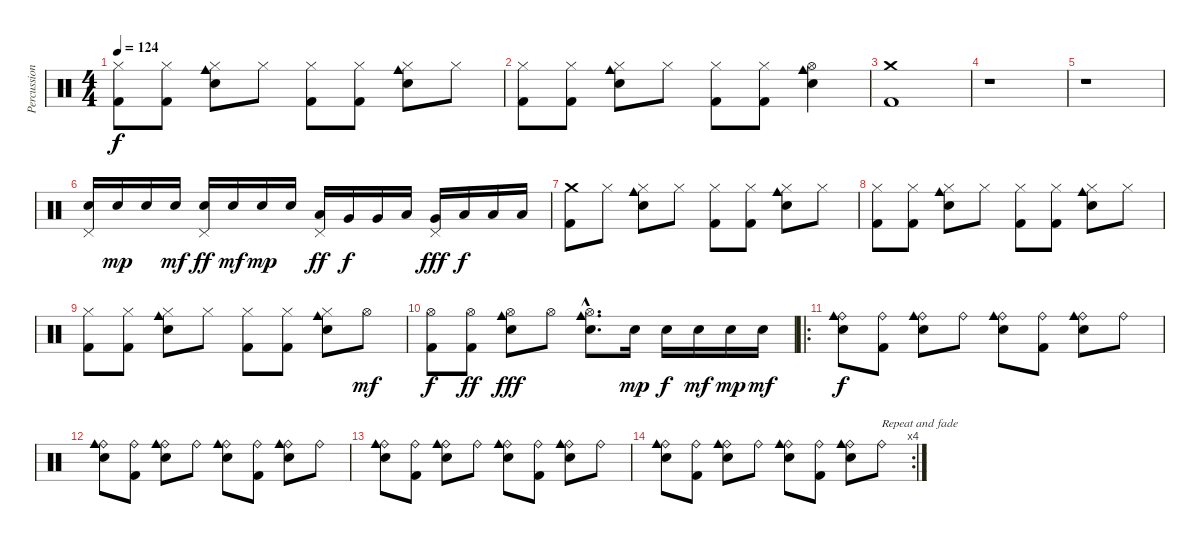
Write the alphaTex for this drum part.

\track ("Percussion" "Percussion") {instrument percussion}
\staff {score}
\articulation defaults
\ts (4 4)
\tempo 124
\clef neutral
\ks c
("Hi-Hat (closed)" "Kick (hit) 2").8{dy f} ("Hi-Hat (closed)" "Kick (hit) 2").8 ("Hi-Hat (closed)" "Cowbell medium (hit)" "Metronome (bell)").8 "Hi-Hat (closed)".8 ("Hi-Hat (closed)" "Kick (hit) 2").8 ("Hi-Hat (closed)" "Kick (hit) 2").8 ("Hi-Hat (closed)" "Cowbell medium (hit)" "Metronome (bell)").8 "Hi-Hat (closed)".8 |
("Hi-Hat (closed)" "Kick (hit) 2").8 ("Hi-Hat (closed)" "Kick (hit) 2").8 ("Hi-Hat (closed)" "Cowbell medium (hit)" "Metronome (bell)").8 "Hi-Hat (closed)".8 ("Hi-Hat (closed)" "Kick (hit) 2").8 ("Hi-Hat (closed)" "Kick (hit) 2").8 ("Hi-Hat (open)" "Cowbell medium (hit)" "Metronome (bell)").4 |
("Crash medium (hit)" "Kick (hit) 2").1 |
r.1 |
r.1 |
("Pedal Hi-Hat (hit)" "Metronome (bell)").16 "Metronome (bell)".16{dy mp} "Metronome (bell)".16 "Metronome (bell)".16{dy mf} ("Pedal Hi-Hat (hit)" "Metronome (bell)").16{dy ff} "Metronome (bell)".16{dy mf} "Metronome (bell)".16{dy mp} "Metronome (bell)".16 ("Pedal Hi-Hat (hit)" "Low Tom (hit)").16{dy ff} "Very Low Tom (hit)".16{dy f} "Very Low Tom (hit)".16 "Low Floor Tom (hit)".16 ("Pedal Hi-Hat (hit)" "Very Low Tom (hit)").16{dy fff} "Low Floor Tom (hit)".16{dy f} "Low Floor Tom (hit)".16 "Low Floor Tom (hit)".16 |
("Crash medium (hit)" "Kick (hit) 2").8 "Hi-Hat (closed)".8 ("Hi-Hat (closed)" "Cowbell medium (hit)" "Metronome (bell)").8 "Hi-Hat (closed)".8 ("Hi-Hat (closed)" "Kick (hit) 2").8 ("Hi-Hat (closed)" "Kick (hit) 2").8 ("Hi-Hat (closed)" "Cowbell medium (hit)" "Metronome (bell)").8 "Hi-Hat (closed)".8 |
("Hi-Hat (closed)" "Kick (hit) 2").8 ("Hi-Hat (closed)" "Kick (hit) 2").8 ("Hi-Hat (closed)" "Cowbell medium (hit)" "Metronome (bell)").8 "Hi-Hat (closed)".8 ("Hi-Hat (closed)" "Kick (hit) 2").8 ("Hi-Hat (closed)" "Kick (hit) 2").8 ("Hi-Hat (closed)" "Cowbell medium (hit)" "Metronome (bell)").8 "Hi-Hat (closed)".8 |
("Hi-Hat (closed)" "Kick (hit) 2").8 ("Hi-Hat (closed)" "Kick (hit) 2").8 ("Hi-Hat (closed)" "Cowbell medium (hit)" "Metronome (bell)").8 "Hi-Hat (closed)".8 ("Hi-Hat (closed)" "Kick (hit) 2").8 ("Hi-Hat (closed)" "Kick (hit) 2").8 ("Hi-Hat (closed)" "Cowbell medium (hit)" "Metronome (bell)").8 "Hi-Hat (open)".8{dy mf} |
("Hi-Hat (open)" "Kick (hit) 2").8{dy f} ("Hi-Hat (open)" "Kick (hit) 2").8{dy ff} ("Hi-Hat (open)" "Cowbell medium (hit)" "Metronome (bell)").8{dy fff} "Hi-Hat (open)".8 ("Hi-Hat (open)"{hac} "Cowbell medium (hit)"{hac} "Metronome (bell)"{hac}).8{d} "Metronome (bell)".16{dy mp} "Metronome (bell)".16{dy f} "Metronome (bell)".16{dy mf} "Metronome (bell)".16{dy mp} "Metronome (bell)".16{dy mf} |
\ro
("Ride (bell)" "Cowbell medium (hit)" "Metronome (bell)").8{dy f} ("Ride (bell)" "Kick (hit) 2").8 ("Ride (bell)" "Cowbell medium (hit)" "Metronome (bell)").8 "Ride (bell)".8 ("Ride (bell)" "Cowbell medium (hit)" "Metronome (bell)").8 ("Ride (bell)" "Kick (hit) 2").8 ("Ride (bell)" "Cowbell medium (hit)" "Metronome (bell)").8 "Ride (bell)".8 |
("Ride (bell)" "Cowbell medium (hit)" "Metronome (bell)").8 ("Ride (bell)" "Kick (hit) 2").8 ("Ride (bell)" "Cowbell medium (hit)" "Metronome (bell)").8 "Ride (bell)".8 ("Ride (bell)" "Cowbell medium (hit)" "Metronome (bell)").8 ("Ride (bell)" "Kick (hit) 2").8 ("Ride (bell)" "Cowbell medium (hit)" "Metronome (bell)").8 "Ride (bell)".8 |
("Ride (bell)" "Cowbell medium (hit)" "Metronome (bell)").8 ("Ride (bell)" "Kick (hit) 2").8 ("Ride (bell)" "Cowbell medium (hit)" "Metronome (bell)").8 "Ride (bell)".8 ("Ride (bell)" "Cowbell medium (hit)" "Metronome (bell)").8 ("Ride (bell)" "Kick (hit) 2").8 ("Ride (bell)" "Cowbell medium (hit)" "Metronome (bell)").8 "Ride (bell)".8 |
\rc 4
("Ride (bell)" "Cowbell medium (hit)" "Metronome (bell)").8 ("Ride (bell)" "Kick (hit) 2").8 ("Ride (bell)" "Cowbell medium (hit)" "Metronome (bell)").8 "Ride (bell)".8 ("Ride (bell)" "Cowbell medium (hit)" "Metronome (bell)").8 ("Ride (bell)" "Kick (hit) 2").8 ("Ride (bell)" "Cowbell medium (hit)" "Metronome (bell)").8 "Ride (bell)".8{txt "Repeat and fade"}
